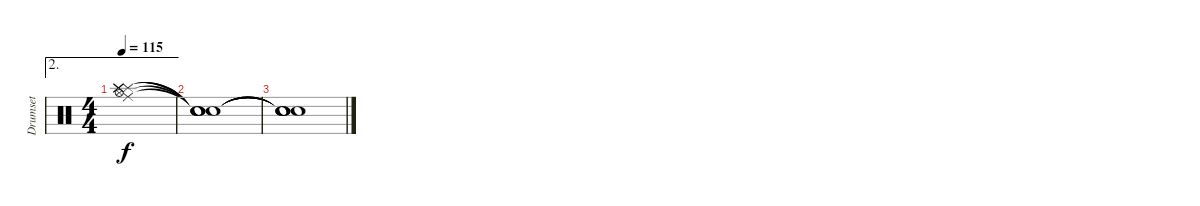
\track ("Drumset" "Drumset") {instrument percussion}
\staff {score}
\articulation defaults
\ae 2
\ts (4 4)
\tempo 115
\clef neutral
\ks c
("Splash (hit)" "Ride (middle)" "Hi-Hat (open)" "Splash (hit)" "Splash (hit)" "Splash (hit)").1{dy f} |
("Snare (hit)"{t} "Snare (hit)"{t} "Snare (hit)"{t} "Snare (hit)"{t}).1 |
("Snare (hit)"{t} "Snare (hit)"{t} "Snare (hit)"{t} "Snare (hit)"{t}).1
